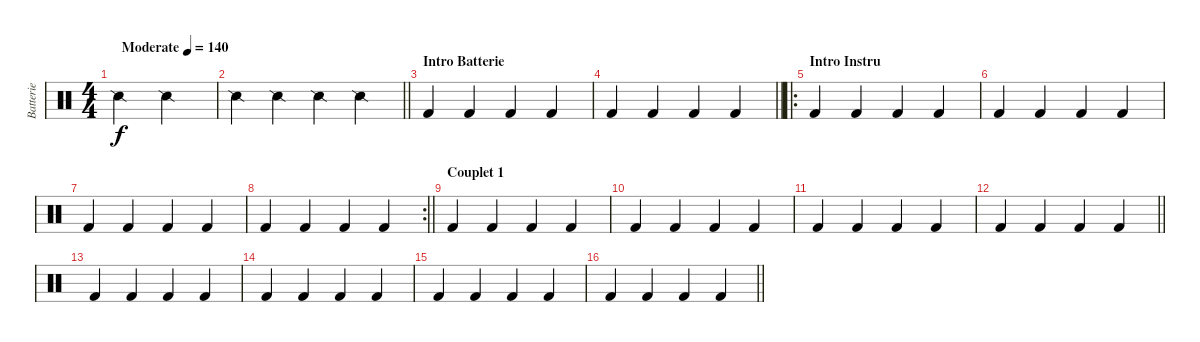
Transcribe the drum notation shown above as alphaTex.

\track ("Batterie" "Batterie") {instrument percussion}
\staff {score}
\articulation defaults
\ts (4 4)
\tempo (140 "Moderate")
\clef neutral
\ks c "Snare (side stick) 2".2{dy f} "Snare (side stick) 2".2
|
\barLineRight lightlight "Snare (side stick) 2".4 "Snare (side stick) 2".4 "Snare (side stick) 2".4 "Snare (side stick) 2".4
|
\section ("" "Intro Batterie")
"Kick (hit) 2".4 "Kick (hit) 2".4 "Kick (hit) 2".4 "Kick (hit) 2".4 |
\barLineRight lightlight "Kick (hit) 2".4 "Kick (hit) 2".4 "Kick (hit) 2".4 "Kick (hit) 2".4
|
\ro
\section ("" "Intro Instru")
"Kick (hit) 2".4 "Kick (hit) 2".4 "Kick (hit) 2".4 "Kick (hit) 2".4 |
"Kick (hit) 2".4 "Kick (hit) 2".4 "Kick (hit) 2".4 "Kick (hit) 2".4 |
"Kick (hit) 2".4 "Kick (hit) 2".4 "Kick (hit) 2".4 "Kick (hit) 2".4 |
\rc 2
\barLineRight lightlight "Kick (hit) 2".4 "Kick (hit) 2".4 "Kick (hit) 2".4 "Kick (hit) 2".4
|
\section ("" "Couplet 1")
"Kick (hit) 2".4 "Kick (hit) 2".4 "Kick (hit) 2".4 "Kick (hit) 2".4 |
"Kick (hit) 2".4 "Kick (hit) 2".4 "Kick (hit) 2".4 "Kick (hit) 2".4 |
"Kick (hit) 2".4 "Kick (hit) 2".4 "Kick (hit) 2".4 "Kick (hit) 2".4 |
\barLineRight lightlight "Kick (hit) 2".4 "Kick (hit) 2".4 "Kick (hit) 2".4 "Kick (hit) 2".4
|
"Kick (hit) 2".4 "Kick (hit) 2".4 "Kick (hit) 2".4 "Kick (hit) 2".4 |
"Kick (hit) 2".4 "Kick (hit) 2".4 "Kick (hit) 2".4 "Kick (hit) 2".4 |
"Kick (hit) 2".4 "Kick (hit) 2".4 "Kick (hit) 2".4 "Kick (hit) 2".4 |
\barLineRight lightlight "Kick (hit) 2".4 "Kick (hit) 2".4 "Kick (hit) 2".4 "Kick (hit) 2".4
